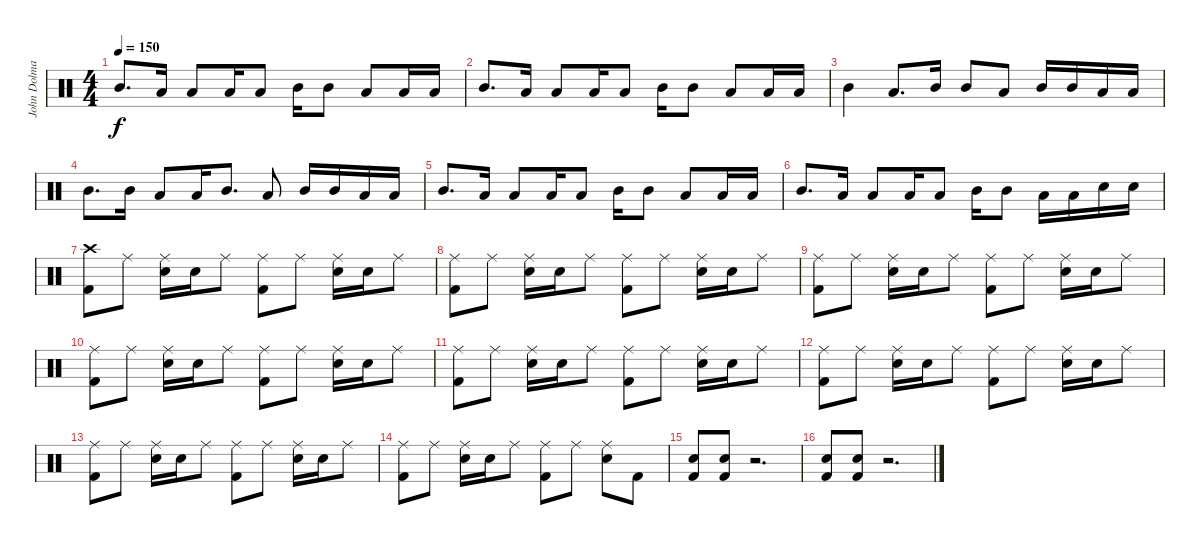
\track ("John Dolmayan" "John Dolma") {instrument percussion}
\staff {score}
\articulation defaults
\ts (4 4)
\tempo 150
\clef neutral
\ks c "Mid Tom (hit)".8{d dy f} "Low Tom (hit)".16 "Low Tom (hit)".8 "Low Tom (hit)".16 "Low Tom (hit)".8 "Mid Tom (hit)".16 "Mid Tom (hit)".8 "Low Tom (hit)".8 "Low Tom (hit)".16 "Low Tom (hit)".16
|
"Mid Tom (hit)".8{d} "Low Tom (hit)".16 "Low Tom (hit)".8 "Low Tom (hit)".16 "Low Tom (hit)".8 "Mid Tom (hit)".16 "Mid Tom (hit)".8 "Low Tom (hit)".8 "Low Tom (hit)".16 "Low Tom (hit)".16 |
"Mid Tom (hit)".4 "Low Tom (hit)".8{d} "Mid Tom (hit)".16 "Mid Tom (hit)".8 "Low Tom (hit)".8 "Mid Tom (hit)".16 "Mid Tom (hit)".16 "Low Tom (hit)".16 "Low Tom (hit)".16 |
"Mid Tom (hit)".8{d} "Mid Tom (hit)".16 "Low Tom (hit)".8 "Low Tom (hit)".16 "Mid Tom (hit)".8{d} "Low Tom (hit)".8 "Mid Tom (hit)".16 "Mid Tom (hit)".16 "Low Tom (hit)".16 "Low Tom (hit)".16 |
"Mid Tom (hit)".8{d} "Low Tom (hit)".16 "Low Tom (hit)".8 "Low Tom (hit)".16 "Low Tom (hit)".8 "Mid Tom (hit)".16 "Mid Tom (hit)".8 "Low Tom (hit)".8 "Low Tom (hit)".16 "Low Tom (hit)".16 |
"Mid Tom (hit)".8{d} "Low Tom (hit)".16 "Low Tom (hit)".8 "Low Tom (hit)".16 "Low Tom (hit)".8 "Mid Tom (hit)".16 "Mid Tom (hit)".8 "Low Tom (hit)".16 "Low Tom (hit)".16 "Electric Snare (hit)".16 "Electric Snare (hit)".16 |
("Crash high (hit)" "Kick (hit) 2").8{volume 16} "Ride (middle)".8 ("Ride (middle)" "Electric Snare (hit)").16 "Electric Snare (hit)".16 "Ride (middle)".8 ("Ride (middle)" "Kick (hit) 2").8 "Ride (middle)".8 ("Ride (middle)" "Electric Snare (hit)").16 "Electric Snare (hit)".16 "Ride (middle)".8 |
("Ride (middle)" "Kick (hit) 2").8{volume 16} "Ride (middle)".8 ("Ride (middle)" "Electric Snare (hit)").16 "Electric Snare (hit)".16 "Ride (middle)".8 ("Ride (middle)" "Kick (hit) 2").8 "Ride (middle)".8 ("Ride (middle)" "Electric Snare (hit)").16 "Electric Snare (hit)".16 "Ride (middle)".8 |
("Ride (middle)" "Kick (hit) 2").8{volume 16} "Ride (middle)".8 ("Ride (middle)" "Electric Snare (hit)").16 "Electric Snare (hit)".16 "Ride (middle)".8 ("Ride (middle)" "Kick (hit) 2").8 "Ride (middle)".8 ("Ride (middle)" "Electric Snare (hit)").16 "Electric Snare (hit)".16 "Ride (middle)".8 |
("Ride (middle)" "Kick (hit) 2").8{volume 16} "Ride (middle)".8 ("Ride (middle)" "Electric Snare (hit)").16 "Electric Snare (hit)".16 "Ride (middle)".8 ("Ride (middle)" "Kick (hit) 2").8 "Ride (middle)".8 ("Ride (middle)" "Electric Snare (hit)").16 "Electric Snare (hit)".16 "Ride (middle)".8 |
("Ride (middle)" "Kick (hit) 2").8{volume 16} "Ride (middle)".8 ("Ride (middle)" "Electric Snare (hit)").16 "Electric Snare (hit)".16 "Ride (middle)".8 ("Ride (middle)" "Kick (hit) 2").8 "Ride (middle)".8 ("Ride (middle)" "Electric Snare (hit)").16 "Electric Snare (hit)".16 "Ride (middle)".8 |
("Ride (middle)" "Kick (hit) 2").8{volume 16} "Ride (middle)".8 ("Ride (middle)" "Electric Snare (hit)").16 "Electric Snare (hit)".16 "Ride (middle)".8 ("Ride (middle)" "Kick (hit) 2").8 "Ride (middle)".8 ("Ride (middle)" "Electric Snare (hit)").16 "Electric Snare (hit)".16 "Ride (middle)".8 |
("Ride (middle)" "Kick (hit) 2").8{volume 16} "Ride (middle)".8 ("Ride (middle)" "Electric Snare (hit)").16 "Electric Snare (hit)".16 "Ride (middle)".8 ("Ride (middle)" "Kick (hit) 2").8 "Ride (middle)".8 ("Ride (middle)" "Electric Snare (hit)").16 "Electric Snare (hit)".16 "Ride (middle)".8 |
("Ride (middle)" "Kick (hit) 2").8{volume 16} "Ride (middle)".8 ("Ride (middle)" "Electric Snare (hit)").16 "Electric Snare (hit)".16 "Ride (middle)".8 ("Ride (middle)" "Kick (hit) 2").8 "Ride (middle)".8 ("Ride (middle)" "Electric Snare (hit)").8 "Kick (hit) 2".8 |
("Electric Snare (hit)" "Kick (hit) 2").8 ("Electric Snare (hit)" "Kick (hit) 2").8 r.2{d} |
("Electric Snare (hit)" "Kick (hit) 2").8 ("Electric Snare (hit)" "Kick (hit) 2").8 r.2{d}
